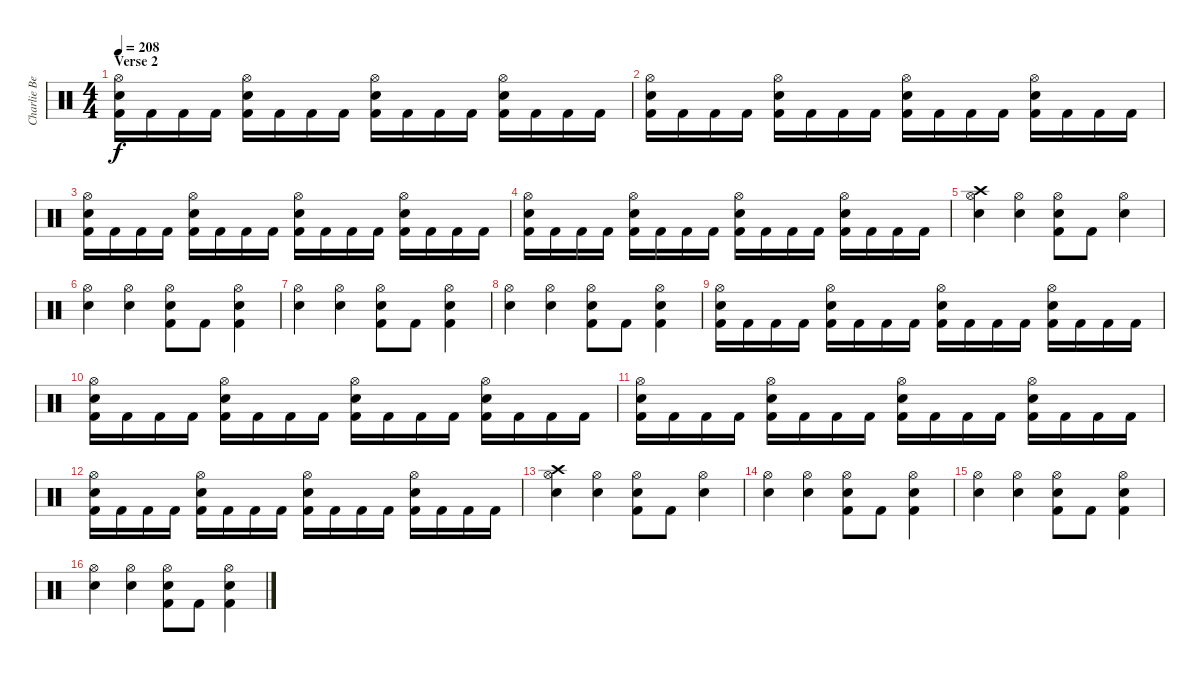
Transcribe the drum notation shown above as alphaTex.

\track ("Charlie Benate" "Charlie Be") {instrument percussion}
\staff {score}
\articulation defaults
\ts (4 4)
\section ("" "Verse 2")
\tempo 208
\clef neutral
\ks c
("Hi-Hat (open)" "Electric Snare (hit)" "Kick (hit) 2").16{dy f} "Kick (hit) 2".16 "Kick (hit) 2".16 "Kick (hit) 2".16 ("Hi-Hat (open)" "Electric Snare (hit)" "Kick (hit) 2").16 "Kick (hit) 2".16 "Kick (hit) 2".16 "Kick (hit) 2".16 ("Hi-Hat (open)" "Electric Snare (hit)" "Kick (hit) 2").16 "Kick (hit) 2".16 "Kick (hit) 2".16 "Kick (hit) 2".16 ("Hi-Hat (open)" "Electric Snare (hit)" "Kick (hit) 2").16 "Kick (hit) 2".16 "Kick (hit) 2".16 "Kick (hit) 2".16 |
("Hi-Hat (open)" "Electric Snare (hit)" "Kick (hit) 2").16 "Kick (hit) 2".16 "Kick (hit) 2".16 "Kick (hit) 2".16 ("Hi-Hat (open)" "Electric Snare (hit)" "Kick (hit) 2").16 "Kick (hit) 2".16 "Kick (hit) 2".16 "Kick (hit) 2".16 ("Hi-Hat (open)" "Electric Snare (hit)" "Kick (hit) 2").16 "Kick (hit) 2".16 "Kick (hit) 2".16 "Kick (hit) 2".16 ("Hi-Hat (open)" "Electric Snare (hit)" "Kick (hit) 2").16 "Kick (hit) 2".16 "Kick (hit) 2".16 "Kick (hit) 2".16 |
("Hi-Hat (open)" "Electric Snare (hit)" "Kick (hit) 2").16 "Kick (hit) 2".16 "Kick (hit) 2".16 "Kick (hit) 2".16 ("Hi-Hat (open)" "Electric Snare (hit)" "Kick (hit) 2").16 "Kick (hit) 2".16 "Kick (hit) 2".16 "Kick (hit) 2".16 ("Hi-Hat (open)" "Electric Snare (hit)" "Kick (hit) 2").16 "Kick (hit) 2".16 "Kick (hit) 2".16 "Kick (hit) 2".16 ("Hi-Hat (open)" "Electric Snare (hit)" "Kick (hit) 2").16 "Kick (hit) 2".16 "Kick (hit) 2".16 "Kick (hit) 2".16 |
("Hi-Hat (open)" "Electric Snare (hit)" "Kick (hit) 2").16 "Kick (hit) 2".16 "Kick (hit) 2".16 "Kick (hit) 2".16 ("Hi-Hat (open)" "Electric Snare (hit)" "Kick (hit) 2").16 "Kick (hit) 2".16 "Kick (hit) 2".16 "Kick (hit) 2".16 ("Hi-Hat (open)" "Electric Snare (hit)" "Kick (hit) 2").16 "Kick (hit) 2".16 "Kick (hit) 2".16 "Kick (hit) 2".16 ("Hi-Hat (open)" "Electric Snare (hit)" "Kick (hit) 2").16 "Kick (hit) 2".16 "Kick (hit) 2".16 "Kick (hit) 2".16 |
("Hi-Hat (open)" "Electric Snare (hit)" "Crash high (hit)").4 ("Hi-Hat (open)" "Electric Snare (hit)").4 ("Hi-Hat (open)" "Electric Snare (hit)" "Kick (hit) 2").8 "Kick (hit) 2".8 ("Hi-Hat (open)" "Electric Snare (hit)").4 |
("Hi-Hat (open)" "Electric Snare (hit)").4 ("Hi-Hat (open)" "Electric Snare (hit)").4 ("Hi-Hat (open)" "Electric Snare (hit)" "Kick (hit) 2").8 "Kick (hit) 2".8 ("Hi-Hat (open)" "Electric Snare (hit)" "Kick (hit) 2").4 |
("Hi-Hat (open)" "Electric Snare (hit)").4 ("Hi-Hat (open)" "Electric Snare (hit)").4 ("Hi-Hat (open)" "Electric Snare (hit)" "Kick (hit) 2").8 "Kick (hit) 2".8 ("Hi-Hat (open)" "Electric Snare (hit)" "Kick (hit) 2").4 |
("Hi-Hat (open)" "Electric Snare (hit)").4 ("Hi-Hat (open)" "Electric Snare (hit)").4 ("Hi-Hat (open)" "Electric Snare (hit)" "Kick (hit) 2").8 "Kick (hit) 2".8 ("Hi-Hat (open)" "Electric Snare (hit)" "Kick (hit) 2").4 |
("Hi-Hat (open)" "Electric Snare (hit)" "Kick (hit) 2").16 "Kick (hit) 2".16 "Kick (hit) 2".16 "Kick (hit) 2".16 ("Hi-Hat (open)" "Electric Snare (hit)" "Kick (hit) 2").16 "Kick (hit) 2".16 "Kick (hit) 2".16 "Kick (hit) 2".16 ("Hi-Hat (open)" "Electric Snare (hit)" "Kick (hit) 2").16 "Kick (hit) 2".16 "Kick (hit) 2".16 "Kick (hit) 2".16 ("Hi-Hat (open)" "Electric Snare (hit)" "Kick (hit) 2").16 "Kick (hit) 2".16 "Kick (hit) 2".16 "Kick (hit) 2".16 |
("Hi-Hat (open)" "Electric Snare (hit)" "Kick (hit) 2").16 "Kick (hit) 2".16 "Kick (hit) 2".16 "Kick (hit) 2".16 ("Hi-Hat (open)" "Electric Snare (hit)" "Kick (hit) 2").16 "Kick (hit) 2".16 "Kick (hit) 2".16 "Kick (hit) 2".16 ("Hi-Hat (open)" "Electric Snare (hit)" "Kick (hit) 2").16 "Kick (hit) 2".16 "Kick (hit) 2".16 "Kick (hit) 2".16 ("Hi-Hat (open)" "Electric Snare (hit)" "Kick (hit) 2").16 "Kick (hit) 2".16 "Kick (hit) 2".16 "Kick (hit) 2".16 |
("Hi-Hat (open)" "Electric Snare (hit)" "Kick (hit) 2").16 "Kick (hit) 2".16 "Kick (hit) 2".16 "Kick (hit) 2".16 ("Hi-Hat (open)" "Electric Snare (hit)" "Kick (hit) 2").16 "Kick (hit) 2".16 "Kick (hit) 2".16 "Kick (hit) 2".16 ("Hi-Hat (open)" "Electric Snare (hit)" "Kick (hit) 2").16 "Kick (hit) 2".16 "Kick (hit) 2".16 "Kick (hit) 2".16 ("Hi-Hat (open)" "Electric Snare (hit)" "Kick (hit) 2").16 "Kick (hit) 2".16 "Kick (hit) 2".16 "Kick (hit) 2".16 |
("Hi-Hat (open)" "Electric Snare (hit)" "Kick (hit) 2").16 "Kick (hit) 2".16 "Kick (hit) 2".16 "Kick (hit) 2".16 ("Hi-Hat (open)" "Electric Snare (hit)" "Kick (hit) 2").16 "Kick (hit) 2".16 "Kick (hit) 2".16 "Kick (hit) 2".16 ("Hi-Hat (open)" "Electric Snare (hit)" "Kick (hit) 2").16 "Kick (hit) 2".16 "Kick (hit) 2".16 "Kick (hit) 2".16 ("Hi-Hat (open)" "Electric Snare (hit)" "Kick (hit) 2").16 "Kick (hit) 2".16 "Kick (hit) 2".16 "Kick (hit) 2".16 |
("Hi-Hat (open)" "Electric Snare (hit)" "Crash high (hit)").4 ("Hi-Hat (open)" "Electric Snare (hit)").4 ("Hi-Hat (open)" "Electric Snare (hit)" "Kick (hit) 2").8 "Kick (hit) 2".8 ("Hi-Hat (open)" "Electric Snare (hit)").4 |
("Hi-Hat (open)" "Electric Snare (hit)").4 ("Hi-Hat (open)" "Electric Snare (hit)").4 ("Hi-Hat (open)" "Electric Snare (hit)" "Kick (hit) 2").8 "Kick (hit) 2".8 ("Hi-Hat (open)" "Electric Snare (hit)" "Kick (hit) 2").4 |
("Hi-Hat (open)" "Electric Snare (hit)").4 ("Hi-Hat (open)" "Electric Snare (hit)").4 ("Hi-Hat (open)" "Electric Snare (hit)" "Kick (hit) 2").8 "Kick (hit) 2".8 ("Hi-Hat (open)" "Electric Snare (hit)" "Kick (hit) 2").4 |
("Hi-Hat (open)" "Electric Snare (hit)").4 ("Hi-Hat (open)" "Electric Snare (hit)").4 ("Hi-Hat (open)" "Electric Snare (hit)" "Kick (hit) 2").8 "Kick (hit) 2".8 ("Hi-Hat (open)" "Electric Snare (hit)" "Kick (hit) 2").4
